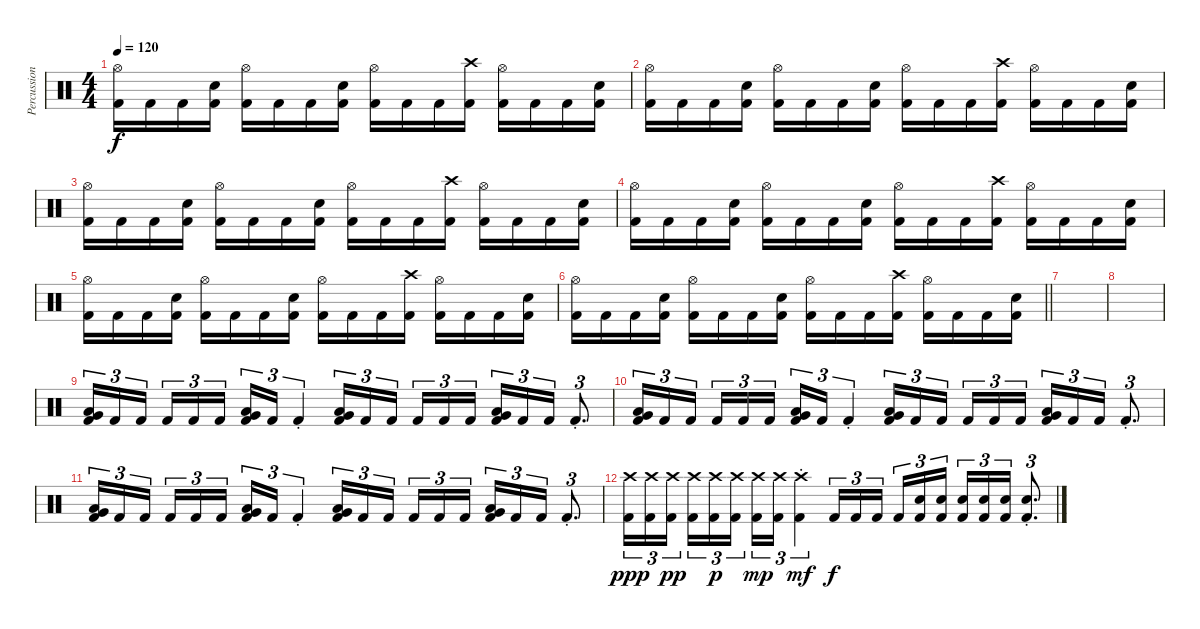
\track ("Percussion" "Percussion") {instrument percussion}
\staff {score}
\articulation defaults
\ts (4 4)
\tempo 120
\clef neutral
\ks c
("Hi-Hat (open)" "Kick (hit) 2").16{dy f} "Kick (hit) 2".16 "Kick (hit) 2".16 ("Electric Snare (hit)" "Kick (hit) 2").16 ("Hi-Hat (open)" "Kick (hit) 2").16 "Kick (hit) 2".16 "Kick (hit) 2".16 ("Electric Snare (hit)" "Kick (hit) 2").16 ("Hi-Hat (open)" "Kick (hit) 2").16 "Kick (hit) 2".16 "Kick (hit) 2".16 ("Crash high (hit)" "Kick (hit) 2").16 ("Hi-Hat (open)" "Kick (hit) 2").16 "Kick (hit) 2".16 "Kick (hit) 2".16 ("Electric Snare (hit)" "Kick (hit) 2").16 |
("Hi-Hat (open)" "Kick (hit) 2").16 "Kick (hit) 2".16 "Kick (hit) 2".16 ("Electric Snare (hit)" "Kick (hit) 2").16 ("Hi-Hat (open)" "Kick (hit) 2").16 "Kick (hit) 2".16 "Kick (hit) 2".16 ("Electric Snare (hit)" "Kick (hit) 2").16 ("Hi-Hat (open)" "Kick (hit) 2").16 "Kick (hit) 2".16 "Kick (hit) 2".16 ("Crash high (hit)" "Kick (hit) 2").16 ("Hi-Hat (open)" "Kick (hit) 2").16 "Kick (hit) 2".16 "Kick (hit) 2".16 ("Electric Snare (hit)" "Kick (hit) 2").16 |
("Hi-Hat (open)" "Kick (hit) 2").16 "Kick (hit) 2".16 "Kick (hit) 2".16 ("Electric Snare (hit)" "Kick (hit) 2").16 ("Hi-Hat (open)" "Kick (hit) 2").16 "Kick (hit) 2".16 "Kick (hit) 2".16 ("Electric Snare (hit)" "Kick (hit) 2").16 ("Hi-Hat (open)" "Kick (hit) 2").16 "Kick (hit) 2".16 "Kick (hit) 2".16 ("Crash high (hit)" "Kick (hit) 2").16 ("Hi-Hat (open)" "Kick (hit) 2").16 "Kick (hit) 2".16 "Kick (hit) 2".16 ("Electric Snare (hit)" "Kick (hit) 2").16 |
("Hi-Hat (open)" "Kick (hit) 2").16 "Kick (hit) 2".16 "Kick (hit) 2".16 ("Electric Snare (hit)" "Kick (hit) 2").16 ("Hi-Hat (open)" "Kick (hit) 2").16 "Kick (hit) 2".16 "Kick (hit) 2".16 ("Electric Snare (hit)" "Kick (hit) 2").16 ("Hi-Hat (open)" "Kick (hit) 2").16 "Kick (hit) 2".16 "Kick (hit) 2".16 ("Crash high (hit)" "Kick (hit) 2").16 ("Hi-Hat (open)" "Kick (hit) 2").16 "Kick (hit) 2".16 "Kick (hit) 2".16 ("Electric Snare (hit)" "Kick (hit) 2").16 |
("Hi-Hat (open)" "Kick (hit) 2").16 "Kick (hit) 2".16 "Kick (hit) 2".16 ("Electric Snare (hit)" "Kick (hit) 2").16 ("Hi-Hat (open)" "Kick (hit) 2").16 "Kick (hit) 2".16 "Kick (hit) 2".16 ("Electric Snare (hit)" "Kick (hit) 2").16 ("Hi-Hat (open)" "Kick (hit) 2").16 "Kick (hit) 2".16 "Kick (hit) 2".16 ("Crash high (hit)" "Kick (hit) 2").16 ("Hi-Hat (open)" "Kick (hit) 2").16 "Kick (hit) 2".16 "Kick (hit) 2".16 ("Electric Snare (hit)" "Kick (hit) 2").16 |
\barLineRight lightlight
("Hi-Hat (open)" "Kick (hit) 2").16 "Kick (hit) 2".16 "Kick (hit) 2".16 ("Electric Snare (hit)" "Kick (hit) 2").16 ("Hi-Hat (open)" "Kick (hit) 2").16 "Kick (hit) 2".16 "Kick (hit) 2".16 ("Electric Snare (hit)" "Kick (hit) 2").16 ("Hi-Hat (open)" "Kick (hit) 2").16 "Kick (hit) 2".16 "Kick (hit) 2".16 ("Crash high (hit)" "Kick (hit) 2").16 ("Hi-Hat (open)" "Kick (hit) 2").16 "Kick (hit) 2".16 "Kick (hit) 2".16 ("Electric Snare (hit)" "Kick (hit) 2").16 |
|
|
("Low Tom (hit)" "Very Low Tom (hit)" "Kick (hit) 2").16{tu (3 2)} "Kick (hit) 2".16{tu (3 2)} "Kick (hit) 2".16{tu (3 2) beam splitsecondary} "Kick (hit) 2".16{tu (3 2)} "Kick (hit) 2".16{tu (3 2)} "Kick (hit) 2".16{tu (3 2)} ("Low Tom (hit)" "Very Low Tom (hit)" "Kick (hit) 2").16{tu (3 2)} "Kick (hit) 2".16{tu (3 2)} "Kick (hit) 2"{st}.4{tu (3 2)} ("Low Tom (hit)" "Very Low Tom (hit)" "Kick (hit) 2").16{tu (3 2)} "Kick (hit) 2".16{tu (3 2)} "Kick (hit) 2".16{tu (3 2) beam splitsecondary} "Kick (hit) 2".16{tu (3 2)} "Kick (hit) 2".16{tu (3 2)} "Kick (hit) 2".16{tu (3 2)} ("Low Tom (hit)" "Very Low Tom (hit)" "Kick (hit) 2").16{tu (3 2)} "Kick (hit) 2".16{tu (3 2)} "Kick (hit) 2".16{tu (3 2)} "Kick (hit) 2"{st}.8{d tu (3 2)} |
("Low Tom (hit)" "Very Low Tom (hit)" "Kick (hit) 2").16{tu (3 2)} "Kick (hit) 2".16{tu (3 2)} "Kick (hit) 2".16{tu (3 2) beam splitsecondary} "Kick (hit) 2".16{tu (3 2)} "Kick (hit) 2".16{tu (3 2)} "Kick (hit) 2".16{tu (3 2)} ("Low Tom (hit)" "Very Low Tom (hit)" "Kick (hit) 2").16{tu (3 2)} "Kick (hit) 2".16{tu (3 2)} "Kick (hit) 2"{st}.4{tu (3 2)} ("Low Tom (hit)" "Very Low Tom (hit)" "Kick (hit) 2").16{tu (3 2)} "Kick (hit) 2".16{tu (3 2)} "Kick (hit) 2".16{tu (3 2) beam splitsecondary} "Kick (hit) 2".16{tu (3 2)} "Kick (hit) 2".16{tu (3 2)} "Kick (hit) 2".16{tu (3 2)} ("Low Tom (hit)" "Very Low Tom (hit)" "Kick (hit) 2").16{tu (3 2)} "Kick (hit) 2".16{tu (3 2)} "Kick (hit) 2".16{tu (3 2)} "Kick (hit) 2"{st}.8{d tu (3 2)} |
("Low Tom (hit)" "Very Low Tom (hit)" "Kick (hit) 2").16{tu (3 2)} "Kick (hit) 2".16{tu (3 2)} "Kick (hit) 2".16{tu (3 2) beam splitsecondary} "Kick (hit) 2".16{tu (3 2)} "Kick (hit) 2".16{tu (3 2)} "Kick (hit) 2".16{tu (3 2)} ("Low Tom (hit)" "Very Low Tom (hit)" "Kick (hit) 2").16{tu (3 2)} "Kick (hit) 2".16{tu (3 2)} "Kick (hit) 2"{st}.4{tu (3 2)} ("Low Tom (hit)" "Very Low Tom (hit)" "Kick (hit) 2").16{tu (3 2)} "Kick (hit) 2".16{tu (3 2)} "Kick (hit) 2".16{tu (3 2) beam splitsecondary} "Kick (hit) 2".16{tu (3 2)} "Kick (hit) 2".16{tu (3 2)} "Kick (hit) 2".16{tu (3 2)} ("Low Tom (hit)" "Very Low Tom (hit)" "Kick (hit) 2").16{tu (3 2)} "Kick (hit) 2".16{tu (3 2)} "Kick (hit) 2".16{tu (3 2)} "Kick (hit) 2"{st}.8{d tu (3 2)} |
("Crash high (hit)" "Kick (hit) 2").16{tu (3 2) dy ppp} ("Crash high (hit)" "Kick (hit) 2").16{tu (3 2)} ("Crash high (hit)" "Kick (hit) 2").16{tu (3 2) dy pp beam splitsecondary} ("Crash high (hit)" "Kick (hit) 2").16{tu (3 2)} ("Crash high (hit)" "Kick (hit) 2").16{tu (3 2) dy p} ("Crash high (hit)" "Kick (hit) 2").16{tu (3 2)} ("Crash high (hit)" "Kick (hit) 2").16{tu (3 2) dy mp} ("Crash high (hit)" "Kick (hit) 2").16{tu (3 2)} ("Crash high (hit)" "Kick (hit) 2"{st}).4{tu (3 2) dy mf} "Kick (hit) 2".16{tu (3 2) dy f} "Kick (hit) 2".16{tu (3 2)} "Kick (hit) 2".16{tu (3 2) beam splitsecondary} "Kick (hit) 2".16{tu (3 2)} ("Electric Snare (hit)" "Kick (hit) 2").16{tu (3 2)} ("Electric Snare (hit)" "Kick (hit) 2").16{tu (3 2)} ("Electric Snare (hit)" "Kick (hit) 2").16{tu (3 2)} ("Electric Snare (hit)" "Kick (hit) 2").16{tu (3 2)} ("Electric Snare (hit)" "Kick (hit) 2").16{tu (3 2)} ("Electric Snare (hit)" "Kick (hit) 2"{st}).8{d tu (3 2)}
